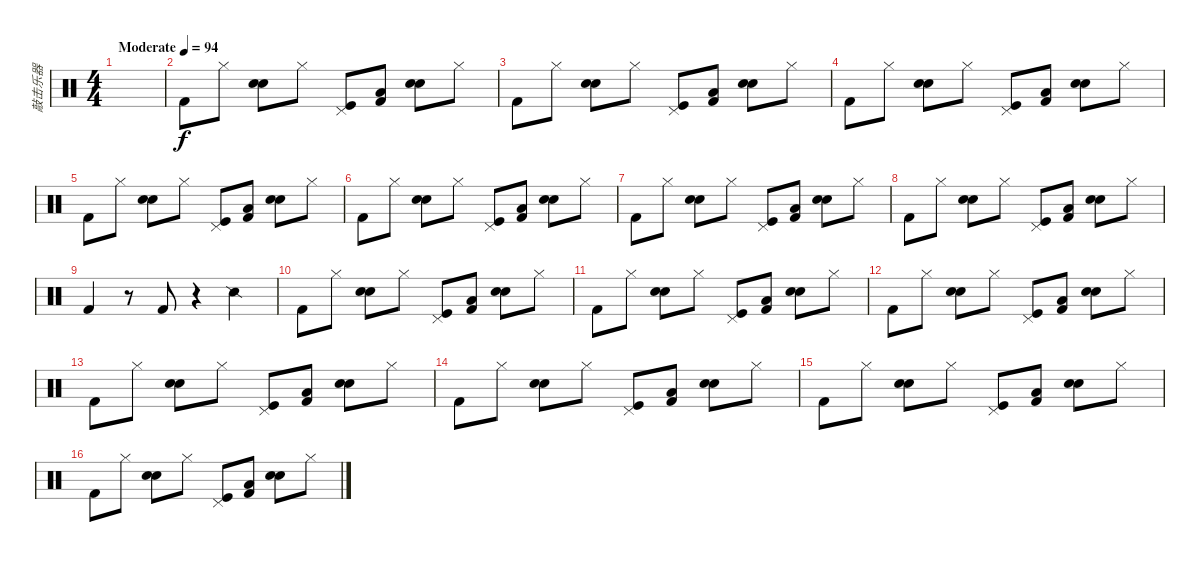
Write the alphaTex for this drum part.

\track ("敲击乐器" "敲击乐器") {instrument percussion}
\staff {score}
\articulation defaults
\ts (4 4)
\tempo (94 "Moderate")
\clef neutral
\ks c
|
"Kick (hit) 2".8 "Hi-Hat (closed)".8 ("Snare (hit) 2" "Hand Clap (hit)").8 "Hi-Hat (closed)".8 ("Pedal Hi-Hat (hit)" "Kick (hit)").8 ("Kick (hit) 2" "Low Tom (hit)").8 ("Snare (hit) 2" "Electric Snare (hit)").8 "Hi-Hat (closed)".8 |
"Kick (hit) 2".8 "Hi-Hat (closed)".8 ("Snare (hit) 2" "Hand Clap (hit)").8 "Hi-Hat (closed)".8 ("Pedal Hi-Hat (hit)" "Kick (hit)").8 ("Kick (hit) 2" "Low Tom (hit)").8 ("Snare (hit) 2" "Electric Snare (hit)").8 "Hi-Hat (closed)".8 |
"Kick (hit) 2".8 "Hi-Hat (closed)".8 ("Snare (hit) 2" "Hand Clap (hit)").8 "Hi-Hat (closed)".8 ("Pedal Hi-Hat (hit)" "Kick (hit)").8 ("Kick (hit) 2" "Low Tom (hit)").8 ("Snare (hit) 2" "Electric Snare (hit)").8 "Hi-Hat (closed)".8 |
"Kick (hit) 2".8 "Hi-Hat (closed)".8 ("Snare (hit) 2" "Hand Clap (hit)").8 "Hi-Hat (closed)".8 ("Pedal Hi-Hat (hit)" "Kick (hit)").8 ("Kick (hit) 2" "Low Tom (hit)").8 ("Snare (hit) 2" "Electric Snare (hit)").8 "Hi-Hat (closed)".8 |
"Kick (hit) 2".8 "Hi-Hat (closed)".8 ("Snare (hit) 2" "Hand Clap (hit)").8 "Hi-Hat (closed)".8 ("Pedal Hi-Hat (hit)" "Kick (hit)").8 ("Kick (hit) 2" "Low Tom (hit)").8 ("Snare (hit) 2" "Electric Snare (hit)").8 "Hi-Hat (closed)".8 |
"Kick (hit) 2".8 "Hi-Hat (closed)".8 ("Snare (hit) 2" "Hand Clap (hit)").8 "Hi-Hat (closed)".8 ("Pedal Hi-Hat (hit)" "Kick (hit)").8 ("Kick (hit) 2" "Low Tom (hit)").8 ("Snare (hit) 2" "Electric Snare (hit)").8 "Hi-Hat (closed)".8 |
"Kick (hit) 2".8 "Hi-Hat (closed)".8 ("Snare (hit) 2" "Hand Clap (hit)").8 "Hi-Hat (closed)".8 ("Pedal Hi-Hat (hit)" "Kick (hit)").8 ("Kick (hit) 2" "Low Tom (hit)").8 ("Snare (hit) 2" "Electric Snare (hit)").8 "Hi-Hat (closed)".8 |
"Kick (hit) 2".4 r.8 "Kick (hit) 2".8 r.4 "Snare (side stick) 2".4 |
"Kick (hit) 2".8 "Hi-Hat (closed)".8 ("Snare (hit) 2" "Hand Clap (hit)").8 "Hi-Hat (closed)".8 ("Pedal Hi-Hat (hit)" "Kick (hit)").8 ("Kick (hit) 2" "Low Tom (hit)").8 ("Snare (hit) 2" "Electric Snare (hit)").8 "Hi-Hat (closed)".8 |
"Kick (hit) 2".8 "Hi-Hat (closed)".8 ("Snare (hit) 2" "Hand Clap (hit)").8 "Hi-Hat (closed)".8 ("Pedal Hi-Hat (hit)" "Kick (hit)").8 ("Kick (hit) 2" "Low Tom (hit)").8 ("Snare (hit) 2" "Electric Snare (hit)").8 "Hi-Hat (closed)".8 |
"Kick (hit) 2".8 "Hi-Hat (closed)".8 ("Snare (hit) 2" "Hand Clap (hit)").8 "Hi-Hat (closed)".8 ("Pedal Hi-Hat (hit)" "Kick (hit)").8 ("Kick (hit) 2" "Low Tom (hit)").8 ("Snare (hit) 2" "Electric Snare (hit)").8 "Hi-Hat (closed)".8 |
"Kick (hit) 2".8 "Hi-Hat (closed)".8 ("Snare (hit) 2" "Hand Clap (hit)").8 "Hi-Hat (closed)".8 ("Pedal Hi-Hat (hit)" "Kick (hit)").8 ("Kick (hit) 2" "Low Tom (hit)").8 ("Snare (hit) 2" "Electric Snare (hit)").8 "Hi-Hat (closed)".8 |
"Kick (hit) 2".8 "Hi-Hat (closed)".8 ("Snare (hit) 2" "Hand Clap (hit)").8 "Hi-Hat (closed)".8 ("Pedal Hi-Hat (hit)" "Kick (hit)").8 ("Kick (hit) 2" "Low Tom (hit)").8 ("Snare (hit) 2" "Electric Snare (hit)").8 "Hi-Hat (closed)".8 |
"Kick (hit) 2".8 "Hi-Hat (closed)".8 ("Snare (hit) 2" "Hand Clap (hit)").8 "Hi-Hat (closed)".8 ("Pedal Hi-Hat (hit)" "Kick (hit)").8 ("Kick (hit) 2" "Low Tom (hit)").8 ("Snare (hit) 2" "Electric Snare (hit)").8 "Hi-Hat (closed)".8 |
"Kick (hit) 2".8 "Hi-Hat (closed)".8 ("Snare (hit) 2" "Hand Clap (hit)").8 "Hi-Hat (closed)".8 ("Pedal Hi-Hat (hit)" "Kick (hit)").8 ("Kick (hit) 2" "Low Tom (hit)").8 ("Snare (hit) 2" "Electric Snare (hit)").8 "Hi-Hat (closed)".8
